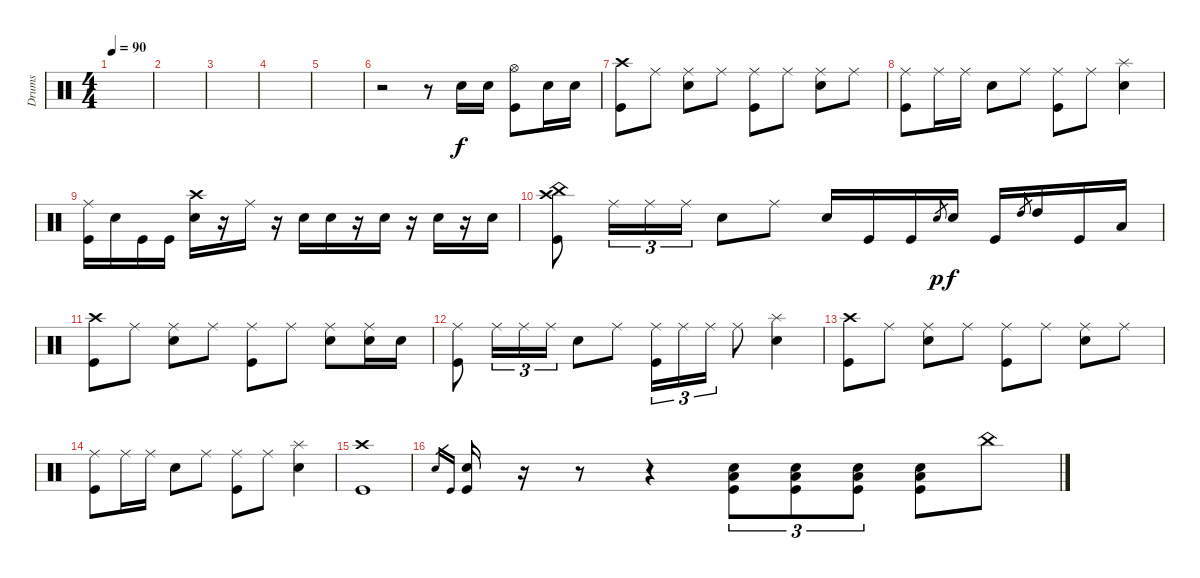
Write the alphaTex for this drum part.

\track ("Drums" "Drums") {instrument percussion}
\staff {score}
\articulation defaults
\ts (4 4)
\tempo 90
\clef neutral
\ks c
|
|
|
|
|
r.2 r.8 "Electric Snare (hit)".16 "Electric Snare (hit)".16 ("Hi-Hat (open)" "Kick (hit)").8 "Electric Snare (hit)".16 "Electric Snare (hit)".16 |
("Crash high (hit)" "Kick (hit)").8 "Ride (middle)".8 ("Ride (middle)" "Electric Snare (hit)").8 "Ride (middle)".8 ("Ride (middle)" "Kick (hit)").8 "Ride (middle)".8 ("Ride (middle)" "Electric Snare (hit)").8 "Ride (middle)".8 |
("Ride (middle)" "Kick (hit)").8 "Ride (middle)".16 "Ride (middle)".16 "Electric Snare (hit)".8 "Ride (middle)".8 ("Ride (middle)" "Kick (hit)").8 "Ride (middle)".8 ("Splash (hit)" "Electric Snare (hit)").4 |
("Ride (middle)" "Kick (hit)").16 "Electric Snare (hit)".16 "Kick (hit)".16 "Kick (hit)".16 ("Crash high (hit)" "Electric Snare (hit)").16 r.16 "Ride (middle)".16 r.16 "Electric Snare (hit)".16 "Electric Snare (hit)".16 r.16 "Electric Snare (hit)".16 r.16 "Electric Snare (hit)".16 r.16 "Electric Snare (hit)".16 |
("China (hit)" "Crash high (hit)" "Kick (hit)").8 "Ride (middle)".16{tu (3 2)} "Ride (middle)".16{tu (3 2)} "Ride (middle)".16{tu (3 2)} "Electric Snare (hit)".8 "Ride (middle)".8 "Electric Snare (hit)".16 "Kick (hit)".16 "Kick (hit)".16 "Electric Snare (hit)".8{gr dy p} "Electric Snare (hit)".16{dy f} "Kick (hit)".16 "High Tom (hit)".8{gr} "High Tom (hit)".16 "Kick (hit)".16 "Low Tom (hit)".16 |
("Crash high (hit)" "Kick (hit)").8 "Ride (middle)".8 ("Ride (middle)" "Electric Snare (hit)").8 "Ride (middle)".8 ("Ride (middle)" "Kick (hit)").8 "Ride (middle)".8 ("Ride (middle)" "Electric Snare (hit)").8 ("Ride (middle)" "Electric Snare (hit)").16 "Electric Snare (hit)".16 |
("Ride (middle)" "Kick (hit)").8 "Ride (middle)".16{tu (3 2)} "Ride (middle)".16{tu (3 2)} "Ride (middle)".16{tu (3 2)} "Electric Snare (hit)".8 "Ride (middle)".8 ("Ride (middle)" "Kick (hit)").16{tu (3 2)} "Ride (middle)".16{tu (3 2)} "Ride (middle)".16{tu (3 2)} "Ride (middle)".8 ("Splash (hit)" "Electric Snare (hit)").4 |
("Crash high (hit)" "Kick (hit)").8 "Ride (middle)".8 ("Ride (middle)" "Electric Snare (hit)").8 "Ride (middle)".8 ("Ride (middle)" "Kick (hit)").8 "Ride (middle)".8 ("Ride (middle)" "Electric Snare (hit)").8 "Ride (middle)".8 |
("Ride (middle)" "Kick (hit)").8 "Ride (middle)".16 "Ride (middle)".16 "Electric Snare (hit)".8 "Ride (middle)".8 ("Ride (middle)" "Kick (hit)").8 "Ride (middle)".8 ("Splash (hit)" "Electric Snare (hit)").4 |
("Crash high (hit)" "Kick (hit)").1 |
"Electric Snare (hit)".16{gr} "Kick (hit)".16{gr} ("Electric Snare (hit)" "Kick (hit)").16 r.16 r.8 r.4 ("Electric Snare (hit)" "Low Floor Tom (hit)" "Kick (hit)").8{tu (3 2)} ("Electric Snare (hit)" "Low Floor Tom (hit)" "Kick (hit)").8{tu (3 2)} ("Electric Snare (hit)" "Low Floor Tom (hit)" "Kick (hit)").8{tu (3 2)} ("Electric Snare (hit)" "Low Floor Tom (hit)" "Kick (hit)").8 "China (hit)".8
